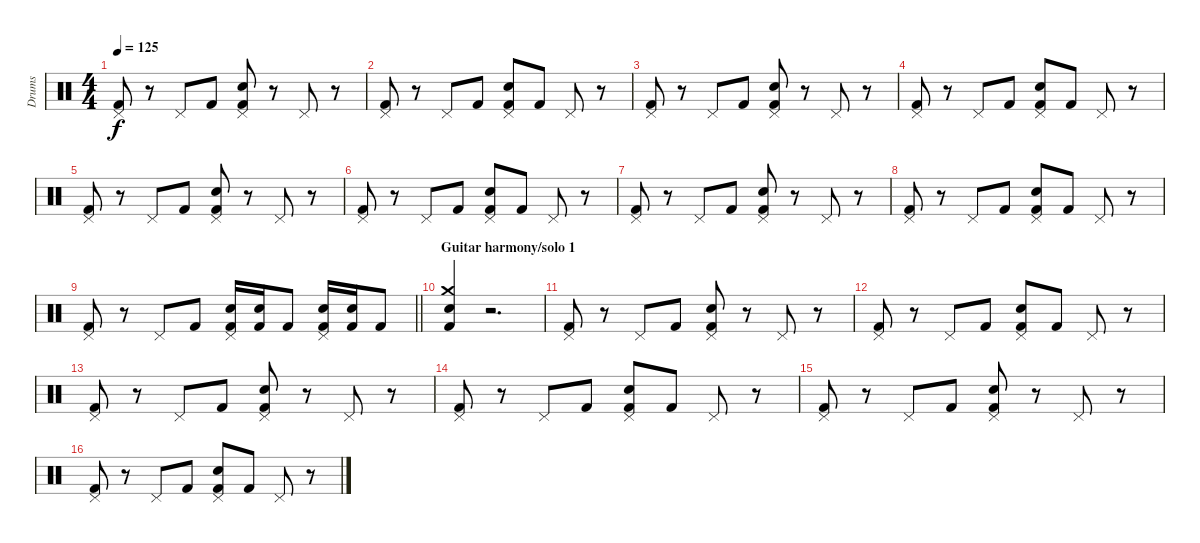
\track ("Drums" "Drums") {instrument percussion}
\staff {score}
\articulation defaults
\ts (4 4)
\tempo 125
\clef neutral
\ks c
("Pedal Hi-Hat (hit)" "Kick (hit) 2").8{dy f} r.8 "Pedal Hi-Hat (hit)".8 "Kick (hit) 2".8 ("Pedal Hi-Hat (hit)" "Electric Snare (hit)" "Kick (hit) 2").8 r.8 "Pedal Hi-Hat (hit)".8 r.8 |
("Pedal Hi-Hat (hit)" "Kick (hit) 2").8 r.8 "Pedal Hi-Hat (hit)".8 "Kick (hit) 2".8 ("Pedal Hi-Hat (hit)" "Electric Snare (hit)" "Kick (hit) 2").8 "Kick (hit) 2".8 "Pedal Hi-Hat (hit)".8 r.8 |
("Pedal Hi-Hat (hit)" "Kick (hit) 2").8 r.8 "Pedal Hi-Hat (hit)".8 "Kick (hit) 2".8 ("Pedal Hi-Hat (hit)" "Electric Snare (hit)" "Kick (hit) 2").8 r.8 "Pedal Hi-Hat (hit)".8 r.8 |
("Pedal Hi-Hat (hit)" "Kick (hit) 2").8 r.8 "Pedal Hi-Hat (hit)".8 "Kick (hit) 2".8 ("Pedal Hi-Hat (hit)" "Electric Snare (hit)" "Kick (hit) 2").8 "Kick (hit) 2".8 "Pedal Hi-Hat (hit)".8 r.8 |
("Pedal Hi-Hat (hit)" "Kick (hit) 2").8 r.8 "Pedal Hi-Hat (hit)".8 "Kick (hit) 2".8 ("Pedal Hi-Hat (hit)" "Electric Snare (hit)" "Kick (hit) 2").8 r.8 "Pedal Hi-Hat (hit)".8 r.8 |
("Pedal Hi-Hat (hit)" "Kick (hit) 2").8 r.8 "Pedal Hi-Hat (hit)".8 "Kick (hit) 2".8 ("Pedal Hi-Hat (hit)" "Electric Snare (hit)" "Kick (hit) 2").8 "Kick (hit) 2".8 "Pedal Hi-Hat (hit)".8 r.8 |
("Pedal Hi-Hat (hit)" "Kick (hit) 2").8 r.8 "Pedal Hi-Hat (hit)".8 "Kick (hit) 2".8 ("Pedal Hi-Hat (hit)" "Electric Snare (hit)" "Kick (hit) 2").8 r.8 "Pedal Hi-Hat (hit)".8 r.8 |
("Pedal Hi-Hat (hit)" "Kick (hit) 2").8 r.8 "Pedal Hi-Hat (hit)".8 "Kick (hit) 2".8 ("Pedal Hi-Hat (hit)" "Electric Snare (hit)" "Kick (hit) 2").8 "Kick (hit) 2".8 "Pedal Hi-Hat (hit)".8 r.8 |
\barLineRight lightlight
("Pedal Hi-Hat (hit)" "Kick (hit) 2").8 r.8 "Pedal Hi-Hat (hit)".8 "Kick (hit) 2".8 ("Pedal Hi-Hat (hit)" "Electric Snare (hit)" "Kick (hit) 2").16 ("Electric Snare (hit)" "Kick (hit) 2").16 "Kick (hit) 2".8 ("Pedal Hi-Hat (hit)" "Electric Snare (hit)" "Kick (hit) 2").16 ("Electric Snare (hit)" "Kick (hit) 2").16 "Kick (hit) 2".8 |
\section ("" "Guitar harmony/solo 1")
("Crash medium (hit)" "Snare (hit) 2" "Kick (hit) 2").4 r.2{d} |
("Pedal Hi-Hat (hit)" "Kick (hit) 2").8 r.8 "Pedal Hi-Hat (hit)".8 "Kick (hit) 2".8 ("Pedal Hi-Hat (hit)" "Electric Snare (hit)" "Kick (hit) 2").8 r.8 "Pedal Hi-Hat (hit)".8 r.8 |
("Pedal Hi-Hat (hit)" "Kick (hit) 2").8 r.8 "Pedal Hi-Hat (hit)".8 "Kick (hit) 2".8 ("Pedal Hi-Hat (hit)" "Electric Snare (hit)" "Kick (hit) 2").8 "Kick (hit) 2".8 "Pedal Hi-Hat (hit)".8 r.8 |
("Pedal Hi-Hat (hit)" "Kick (hit) 2").8 r.8 "Pedal Hi-Hat (hit)".8 "Kick (hit) 2".8 ("Pedal Hi-Hat (hit)" "Electric Snare (hit)" "Kick (hit) 2").8 r.8 "Pedal Hi-Hat (hit)".8 r.8 |
("Pedal Hi-Hat (hit)" "Kick (hit) 2").8 r.8 "Pedal Hi-Hat (hit)".8 "Kick (hit) 2".8 ("Pedal Hi-Hat (hit)" "Electric Snare (hit)" "Kick (hit) 2").8 "Kick (hit) 2".8 "Pedal Hi-Hat (hit)".8 r.8 |
("Pedal Hi-Hat (hit)" "Kick (hit) 2").8 r.8 "Pedal Hi-Hat (hit)".8 "Kick (hit) 2".8 ("Pedal Hi-Hat (hit)" "Electric Snare (hit)" "Kick (hit) 2").8 r.8 "Pedal Hi-Hat (hit)".8 r.8 |
("Pedal Hi-Hat (hit)" "Kick (hit) 2").8 r.8 "Pedal Hi-Hat (hit)".8 "Kick (hit) 2".8 ("Pedal Hi-Hat (hit)" "Electric Snare (hit)" "Kick (hit) 2").8 "Kick (hit) 2".8 "Pedal Hi-Hat (hit)".8 r.8
